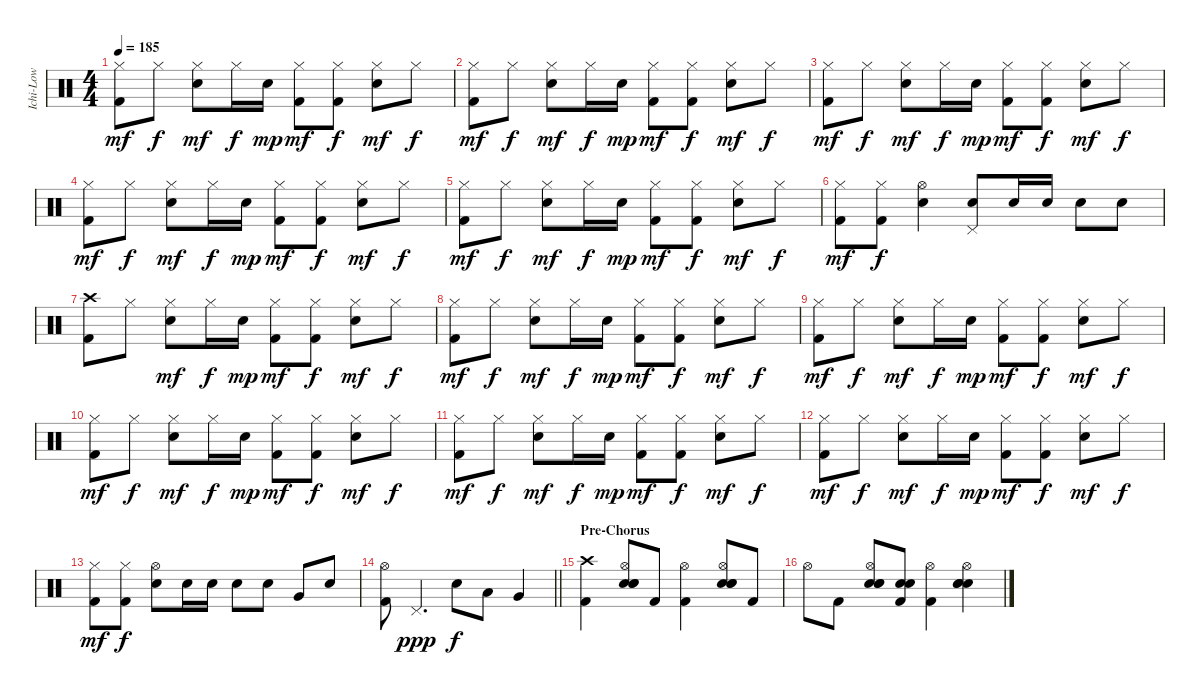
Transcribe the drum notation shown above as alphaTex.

\track ("Ichi-Low" "Ichi-Low") {instrument percussion}
\staff {score}
\articulation defaults
\ts (4 4)
\tempo 185
\clef neutral
\ks c
("Hi-Hat (closed)" "Kick (hit) 2").8{dy mf} "Hi-Hat (closed)".8{dy f} ("Hi-Hat (closed)" "Electric Snare (hit)").8{dy mf} "Hi-Hat (closed)".16{dy f} "Electric Snare (hit)".16{dy mp} ("Hi-Hat (closed)" "Kick (hit) 2").8{dy mf} ("Hi-Hat (closed)" "Kick (hit) 2").8{dy f} ("Hi-Hat (closed)" "Electric Snare (hit)").8{dy mf} "Hi-Hat (closed)".8{dy f} |
("Hi-Hat (closed)" "Kick (hit) 2").8{dy mf} "Hi-Hat (closed)".8{dy f} ("Hi-Hat (closed)" "Electric Snare (hit)").8{dy mf} "Hi-Hat (closed)".16{dy f} "Electric Snare (hit)".16{dy mp} ("Hi-Hat (closed)" "Kick (hit) 2").8{dy mf} ("Hi-Hat (closed)" "Kick (hit) 2").8{dy f} ("Hi-Hat (closed)" "Electric Snare (hit)").8{dy mf} "Hi-Hat (closed)".8{dy f} |
("Hi-Hat (closed)" "Kick (hit) 2").8{dy mf} "Hi-Hat (closed)".8{dy f} ("Hi-Hat (closed)" "Electric Snare (hit)").8{dy mf} "Hi-Hat (closed)".16{dy f} "Electric Snare (hit)".16{dy mp} ("Hi-Hat (closed)" "Kick (hit) 2").8{dy mf} ("Hi-Hat (closed)" "Kick (hit) 2").8{dy f} ("Hi-Hat (closed)" "Electric Snare (hit)").8{dy mf} "Hi-Hat (closed)".8{dy f} |
("Hi-Hat (closed)" "Kick (hit) 2").8{dy mf} "Hi-Hat (closed)".8{dy f} ("Hi-Hat (closed)" "Electric Snare (hit)").8{dy mf} "Hi-Hat (closed)".16{dy f} "Electric Snare (hit)".16{dy mp} ("Hi-Hat (closed)" "Kick (hit) 2").8{dy mf} ("Hi-Hat (closed)" "Kick (hit) 2").8{dy f} ("Hi-Hat (closed)" "Electric Snare (hit)").8{dy mf} "Hi-Hat (closed)".8{dy f} |
("Hi-Hat (closed)" "Kick (hit) 2").8{dy mf} "Hi-Hat (closed)".8{dy f} ("Hi-Hat (closed)" "Electric Snare (hit)").8{dy mf} "Hi-Hat (closed)".16{dy f} "Electric Snare (hit)".16{dy mp} ("Hi-Hat (closed)" "Kick (hit) 2").8{dy mf} ("Hi-Hat (closed)" "Kick (hit) 2").8{dy f} ("Hi-Hat (closed)" "Electric Snare (hit)").8{dy mf} "Hi-Hat (closed)".8{dy f} |
("Hi-Hat (closed)" "Kick (hit) 2").8{dy mf} ("Hi-Hat (closed)" "Kick (hit) 2").8{dy f} ("Hi-Hat (open)" "Electric Snare (hit)").4 ("Pedal Hi-Hat (hit)" "Electric Snare (hit)").8 "Electric Snare (hit)".16 "Electric Snare (hit)".16 "Electric Snare (hit)".8 "Electric Snare (hit)".8 |
("Crash high (hit)" "Kick (hit) 2").8 "Hi-Hat (closed)".8 ("Hi-Hat (closed)" "Electric Snare (hit)").8{dy mf} "Hi-Hat (closed)".16{dy f} "Electric Snare (hit)".16{dy mp} ("Hi-Hat (closed)" "Kick (hit) 2").8{dy mf} ("Hi-Hat (closed)" "Kick (hit) 2").8{dy f} ("Hi-Hat (closed)" "Electric Snare (hit)").8{dy mf} "Hi-Hat (closed)".8{dy f} |
("Hi-Hat (closed)" "Kick (hit) 2").8{dy mf} "Hi-Hat (closed)".8{dy f} ("Hi-Hat (closed)" "Electric Snare (hit)").8{dy mf} "Hi-Hat (closed)".16{dy f} "Electric Snare (hit)".16{dy mp} ("Hi-Hat (closed)" "Kick (hit) 2").8{dy mf} ("Hi-Hat (closed)" "Kick (hit) 2").8{dy f} ("Hi-Hat (closed)" "Electric Snare (hit)").8{dy mf} "Hi-Hat (closed)".8{dy f} |
("Hi-Hat (closed)" "Kick (hit) 2").8{dy mf} "Hi-Hat (closed)".8{dy f} ("Hi-Hat (closed)" "Electric Snare (hit)").8{dy mf} "Hi-Hat (closed)".16{dy f} "Electric Snare (hit)".16{dy mp} ("Hi-Hat (closed)" "Kick (hit) 2").8{dy mf} ("Hi-Hat (closed)" "Kick (hit) 2").8{dy f} ("Hi-Hat (closed)" "Electric Snare (hit)").8{dy mf} "Hi-Hat (closed)".8{dy f} |
("Hi-Hat (closed)" "Kick (hit) 2").8{dy mf} "Hi-Hat (closed)".8{dy f} ("Hi-Hat (closed)" "Electric Snare (hit)").8{dy mf} "Hi-Hat (closed)".16{dy f} "Electric Snare (hit)".16{dy mp} ("Hi-Hat (closed)" "Kick (hit) 2").8{dy mf} ("Hi-Hat (closed)" "Kick (hit) 2").8{dy f} ("Hi-Hat (closed)" "Electric Snare (hit)").8{dy mf} "Hi-Hat (closed)".8{dy f} |
("Hi-Hat (closed)" "Kick (hit) 2").8{dy mf} "Hi-Hat (closed)".8{dy f} ("Hi-Hat (closed)" "Electric Snare (hit)").8{dy mf} "Hi-Hat (closed)".16{dy f} "Electric Snare (hit)".16{dy mp} ("Hi-Hat (closed)" "Kick (hit) 2").8{dy mf} ("Hi-Hat (closed)" "Kick (hit) 2").8{dy f} ("Hi-Hat (closed)" "Electric Snare (hit)").8{dy mf} "Hi-Hat (closed)".8{dy f} |
("Hi-Hat (closed)" "Kick (hit) 2").8{dy mf} "Hi-Hat (closed)".8{dy f} ("Hi-Hat (closed)" "Electric Snare (hit)").8{dy mf} "Hi-Hat (closed)".16{dy f} "Electric Snare (hit)".16{dy mp} ("Hi-Hat (closed)" "Kick (hit) 2").8{dy mf} ("Hi-Hat (closed)" "Kick (hit) 2").8{dy f} ("Hi-Hat (closed)" "Electric Snare (hit)").8{dy mf} "Hi-Hat (closed)".8{dy f} |
("Hi-Hat (closed)" "Kick (hit) 2").8{dy mf} ("Hi-Hat (closed)" "Kick (hit) 2").8{dy f} ("Hi-Hat (open)" "Electric Snare (hit)").8 "Electric Snare (hit)".16 "Electric Snare (hit)".16 "Electric Snare (hit)".8 "Electric Snare (hit)".8 "Very Low Tom (hit)".8 "Electric Snare (hit)".8 |
\barLineRight lightlight
("Hi-Hat (open)" "Kick (hit) 2").8 "Pedal Hi-Hat (hit)".4{d dy ppp} "Electric Snare (hit)".8{dy f} "Low Tom (hit)".8 "Very Low Tom (hit)".4 |
\section ("" "Pre-Chorus")
("Crash high (hit)" "Kick (hit) 2").4 ("Hi-Hat (open)" "Hand Clap (hit)" "Hand Clap (hit)" "Electric Snare (hit)").8 "Kick (hit) 2".8 ("Hi-Hat (open)" "Kick (hit) 2").4 ("Hi-Hat (open)" "Hand Clap (hit)" "Hand Clap (hit)" "Electric Snare (hit)").8 "Kick (hit) 2".8 |
"Hi-Hat (open)".8 "Kick (hit) 2".8 ("Hi-Hat (open)" "Hand Clap (hit)" "Hand Clap (hit)" "Electric Snare (hit)").8 ("Hand Clap (hit)" "Hand Clap (hit)" "Kick (hit) 2").8 ("Hi-Hat (open)" "Kick (hit) 2").4 ("Hi-Hat (open)" "Hand Clap (hit)" "Hand Clap (hit)" "Electric Snare (hit)").4
